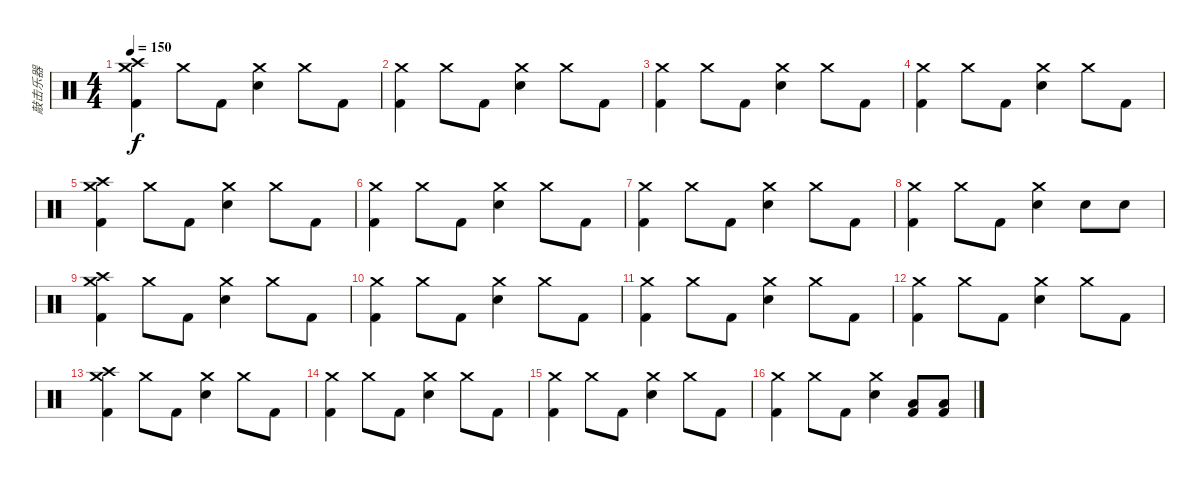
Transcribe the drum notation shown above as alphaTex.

\track ("敲击乐器" "敲击乐器") {instrument percussion}
\staff {score}
\articulation defaults
\ts (4 4)
\tempo 150
\clef neutral
\ks c
("Crash medium (hit)" "Crash high (hit)" "Kick (hit) 2").4{dy f} "Crash medium (hit)".8 "Kick (hit) 2".8 ("Crash medium (hit)" "Snare (hit) 2").4 "Crash medium (hit)".8 "Kick (hit) 2".8 |
("Crash medium (hit)" "Kick (hit) 2").4 "Crash medium (hit)".8 "Kick (hit) 2".8 ("Crash medium (hit)" "Snare (hit) 2").4 "Crash medium (hit)".8 "Kick (hit) 2".8 |
("Crash medium (hit)" "Kick (hit) 2").4 "Crash medium (hit)".8 "Kick (hit) 2".8 ("Crash medium (hit)" "Snare (hit) 2").4 "Crash medium (hit)".8 "Kick (hit) 2".8 |
("Crash medium (hit)" "Kick (hit) 2").4 "Crash medium (hit)".8 "Kick (hit) 2".8 ("Crash medium (hit)" "Snare (hit) 2").4 "Crash medium (hit)".8 "Kick (hit) 2".8 |
("Crash medium (hit)" "Crash high (hit)" "Kick (hit) 2").4 "Crash medium (hit)".8 "Kick (hit) 2".8 ("Crash medium (hit)" "Snare (hit) 2").4 "Crash medium (hit)".8 "Kick (hit) 2".8 |
("Crash medium (hit)" "Kick (hit) 2").4 "Crash medium (hit)".8 "Kick (hit) 2".8 ("Crash medium (hit)" "Snare (hit) 2").4 "Crash medium (hit)".8 "Kick (hit) 2".8 |
("Crash medium (hit)" "Kick (hit) 2").4 "Crash medium (hit)".8 "Kick (hit) 2".8 ("Crash medium (hit)" "Snare (hit) 2").4 "Crash medium (hit)".8 "Kick (hit) 2".8 |
("Crash medium (hit)" "Kick (hit) 2").4 "Crash medium (hit)".8 "Kick (hit) 2".8 ("Crash medium (hit)" "Snare (hit) 2").4 "Snare (hit) 2".8 "Snare (hit) 2".8 |
("Crash medium (hit)" "Crash high (hit)" "Kick (hit) 2").4 "Crash medium (hit)".8 "Kick (hit) 2".8 ("Crash medium (hit)" "Snare (hit) 2").4 "Crash medium (hit)".8 "Kick (hit) 2".8 |
("Crash medium (hit)" "Kick (hit) 2").4 "Crash medium (hit)".8 "Kick (hit) 2".8 ("Crash medium (hit)" "Snare (hit) 2").4 "Crash medium (hit)".8 "Kick (hit) 2".8 |
("Crash medium (hit)" "Kick (hit) 2").4 "Crash medium (hit)".8 "Kick (hit) 2".8 ("Crash medium (hit)" "Snare (hit) 2").4 "Crash medium (hit)".8 "Kick (hit) 2".8 |
("Crash medium (hit)" "Kick (hit) 2").4 "Crash medium (hit)".8 "Kick (hit) 2".8 ("Crash medium (hit)" "Snare (hit) 2").4 "Crash medium (hit)".8 "Kick (hit) 2".8 |
("Crash medium (hit)" "Crash high (hit)" "Kick (hit) 2").4 "Crash medium (hit)".8 "Kick (hit) 2".8 ("Crash medium (hit)" "Snare (hit) 2").4 "Crash medium (hit)".8 "Kick (hit) 2".8 |
("Crash medium (hit)" "Kick (hit) 2").4 "Crash medium (hit)".8 "Kick (hit) 2".8 ("Crash medium (hit)" "Snare (hit) 2").4 "Crash medium (hit)".8 "Kick (hit) 2".8 |
("Crash medium (hit)" "Kick (hit) 2").4 "Crash medium (hit)".8 "Kick (hit) 2".8 ("Crash medium (hit)" "Snare (hit) 2").4 "Crash medium (hit)".8 "Kick (hit) 2".8 |
("Crash medium (hit)" "Kick (hit) 2").4 "Crash medium (hit)".8 "Kick (hit) 2".8 ("Crash medium (hit)" "Snare (hit) 2").4 ("Low Tom (hit)" "Kick (hit) 2").8 ("Low Tom (hit)" "Kick (hit) 2").8
